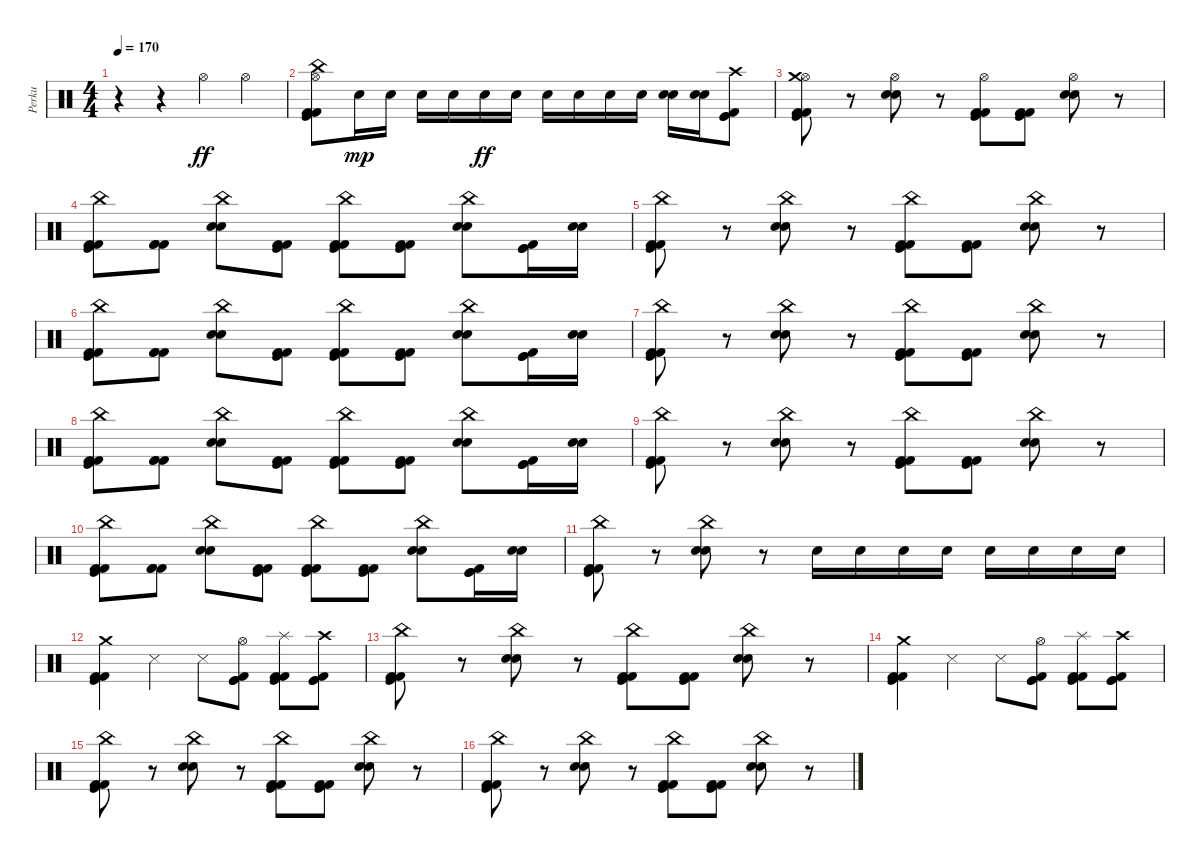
\track ("Perku" "Perku") {instrument percussion}
\staff {score}
\articulation defaults
\ts (4 4)
\tempo 170
\clef neutral
\ks c
r.4{dy ff} r.4 "Hi-Hat (open)".4 "Hi-Hat (open)".4 |
("Hi-Hat (open)" "China (hit)" "Kick (hit) 2" "Kick (hit) 2" "Kick (hit)").8 "Electric Snare (hit)".16{dy mp} "Electric Snare (hit)".16 "Electric Snare (hit)".16 "Electric Snare (hit)".16 "Electric Snare (hit)".16{dy ff} "Electric Snare (hit)".16 "Electric Snare (hit)".16 "Electric Snare (hit)".16 "Electric Snare (hit)".16 "Electric Snare (hit)".16 ("Electric Snare (hit)" "Electric Snare (hit)").16 ("Electric Snare (hit)" "Electric Snare (hit)").16 ("Crash high (hit)" "Kick (hit)" "Kick (hit) 2" "Kick (hit)").8 |
("Hi-Hat (open)" "Crash medium (hit)" "Kick (hit) 2" "Kick (hit) 2" "Kick (hit)").8 r.8 ("Hi-Hat (open)" "Electric Snare (hit)" "Electric Snare (hit)").8 r.8 ("Hi-Hat (open)" "Kick (hit) 2" "Kick (hit) 2" "Kick (hit)").8 ("Kick (hit)" "Kick (hit) 2" "Kick (hit) 2").8 ("Hi-Hat (open)" "Electric Snare (hit)" "Electric Snare (hit)").8 r.8 |
("China (hit)" "Kick (hit) 2" "Kick (hit) 2" "Kick (hit)").8 ("Kick (hit) 2" "Kick (hit) 2" "Kick (hit) 2").8 ("China (hit)" "Electric Snare (hit)" "Electric Snare (hit)").8 ("Kick (hit) 2" "Kick (hit) 2" "Kick (hit)").8 ("China (hit)" "Kick (hit) 2" "Kick (hit) 2" "Kick (hit)").8 ("Kick (hit)" "Kick (hit) 2" "Kick (hit) 2").8 ("China (hit)" "Electric Snare (hit)" "Electric Snare (hit)").8 ("Kick (hit)" "Kick (hit) 2" "Kick (hit)").16 ("Electric Snare (hit)" "Electric Snare (hit)").16 |
("China (hit)" "Kick (hit) 2" "Kick (hit) 2" "Kick (hit)").8 r.8 ("China (hit)" "Electric Snare (hit)" "Electric Snare (hit)").8 r.8 ("China (hit)" "Kick (hit) 2" "Kick (hit) 2" "Kick (hit)").8 ("Kick (hit)" "Kick (hit) 2" "Kick (hit) 2").8 ("China (hit)" "Electric Snare (hit)" "Electric Snare (hit)").8 r.8 |
("China (hit)" "Kick (hit) 2" "Kick (hit) 2" "Kick (hit)").8 ("Kick (hit) 2" "Kick (hit) 2" "Kick (hit) 2").8 ("China (hit)" "Electric Snare (hit)" "Electric Snare (hit)").8 ("Kick (hit) 2" "Kick (hit) 2" "Kick (hit)").8 ("China (hit)" "Kick (hit) 2" "Kick (hit) 2" "Kick (hit)").8 ("Kick (hit)" "Kick (hit) 2" "Kick (hit) 2").8 ("China (hit)" "Electric Snare (hit)" "Electric Snare (hit)").8 ("Kick (hit)" "Kick (hit) 2" "Kick (hit)").16 ("Electric Snare (hit)" "Electric Snare (hit)").16 |
("China (hit)" "Kick (hit) 2" "Kick (hit) 2" "Kick (hit)").8 r.8 ("China (hit)" "Electric Snare (hit)" "Electric Snare (hit)").8 r.8 ("China (hit)" "Kick (hit) 2" "Kick (hit) 2" "Kick (hit)").8 ("Kick (hit)" "Kick (hit) 2" "Kick (hit) 2").8 ("China (hit)" "Electric Snare (hit)" "Electric Snare (hit)").8 r.8 |
("China (hit)" "Kick (hit) 2" "Kick (hit) 2" "Kick (hit)").8 ("Kick (hit) 2" "Kick (hit) 2" "Kick (hit) 2").8 ("China (hit)" "Electric Snare (hit)" "Electric Snare (hit)").8 ("Kick (hit) 2" "Kick (hit) 2" "Kick (hit)").8 ("China (hit)" "Kick (hit) 2" "Kick (hit) 2" "Kick (hit)").8 ("Kick (hit)" "Kick (hit) 2" "Kick (hit) 2").8 ("China (hit)" "Electric Snare (hit)" "Electric Snare (hit)").8 ("Kick (hit)" "Kick (hit) 2" "Kick (hit)").16 ("Electric Snare (hit)" "Electric Snare (hit)").16 |
("China (hit)" "Kick (hit) 2" "Kick (hit) 2" "Kick (hit)").8 r.8 ("China (hit)" "Electric Snare (hit)" "Electric Snare (hit)").8 r.8 ("China (hit)" "Kick (hit) 2" "Kick (hit) 2" "Kick (hit)").8 ("Kick (hit)" "Kick (hit) 2" "Kick (hit) 2").8 ("China (hit)" "Electric Snare (hit)" "Electric Snare (hit)").8 r.8 |
("China (hit)" "Kick (hit) 2" "Kick (hit) 2" "Kick (hit)").8 ("Kick (hit) 2" "Kick (hit) 2" "Kick (hit) 2").8 ("China (hit)" "Electric Snare (hit)" "Electric Snare (hit)").8 ("Kick (hit) 2" "Kick (hit) 2" "Kick (hit)").8 ("China (hit)" "Kick (hit) 2" "Kick (hit) 2" "Kick (hit)").8 ("Kick (hit)" "Kick (hit) 2" "Kick (hit) 2").8 ("China (hit)" "Electric Snare (hit)" "Electric Snare (hit)").8 ("Kick (hit)" "Kick (hit) 2" "Kick (hit)").16 ("Electric Snare (hit)" "Electric Snare (hit)").16 |
("China (hit)" "Kick (hit) 2" "Kick (hit) 2" "Kick (hit)").8 r.8 ("China (hit)" "Electric Snare (hit)" "Electric Snare (hit)").8 r.8 "Electric Snare (hit)".16 "Electric Snare (hit)".16 "Electric Snare (hit)".16 "Electric Snare (hit)".16 "Electric Snare (hit)".16 "Electric Snare (hit)".16 "Electric Snare (hit)".16 "Electric Snare (hit)".16 |
("Crash medium (hit)" "Kick (hit)" "Kick (hit) 2" "Kick (hit) 2").4 "Snare (side stick) 3".4 "Snare (side stick) 3".8 ("Hi-Hat (open)" "Kick (hit)" "Kick (hit)" "Kick (hit) 2").8 ("Splash (hit)" "Kick (hit) 2" "Kick (hit)" "Kick (hit) 2").8 ("Crash high (hit)" "Kick (hit)" "Kick (hit) 2" "Kick (hit)").8 |
("China (hit)" "Kick (hit) 2" "Kick (hit) 2" "Kick (hit)").8 r.8 ("China (hit)" "Electric Snare (hit)" "Electric Snare (hit)").8 r.8 ("China (hit)" "Kick (hit) 2" "Kick (hit) 2" "Kick (hit)").8 ("Kick (hit)" "Kick (hit) 2" "Kick (hit) 2").8 ("China (hit)" "Electric Snare (hit)" "Electric Snare (hit)").8 r.8 |
("Crash medium (hit)" "Kick (hit)" "Kick (hit) 2" "Kick (hit) 2").4 "Snare (side stick) 3".4 "Snare (side stick) 3".8 ("Hi-Hat (open)" "Kick (hit)" "Kick (hit)" "Kick (hit) 2").8 ("Splash (hit)" "Kick (hit) 2" "Kick (hit)" "Kick (hit) 2").8 ("Crash high (hit)" "Kick (hit)" "Kick (hit) 2" "Kick (hit)").8 |
("China (hit)" "Kick (hit) 2" "Kick (hit) 2" "Kick (hit)").8 r.8 ("China (hit)" "Electric Snare (hit)" "Electric Snare (hit)").8 r.8 ("China (hit)" "Kick (hit) 2" "Kick (hit) 2" "Kick (hit)").8 ("Kick (hit)" "Kick (hit) 2" "Kick (hit) 2").8 ("China (hit)" "Electric Snare (hit)" "Electric Snare (hit)").8 r.8 |
("China (hit)" "Kick (hit) 2" "Kick (hit) 2" "Kick (hit)").8 r.8 ("China (hit)" "Electric Snare (hit)" "Electric Snare (hit)").8 r.8 ("China (hit)" "Kick (hit) 2" "Kick (hit) 2" "Kick (hit)").8 ("Kick (hit)" "Kick (hit) 2" "Kick (hit) 2").8 ("China (hit)" "Electric Snare (hit)" "Electric Snare (hit)").8 r.8
